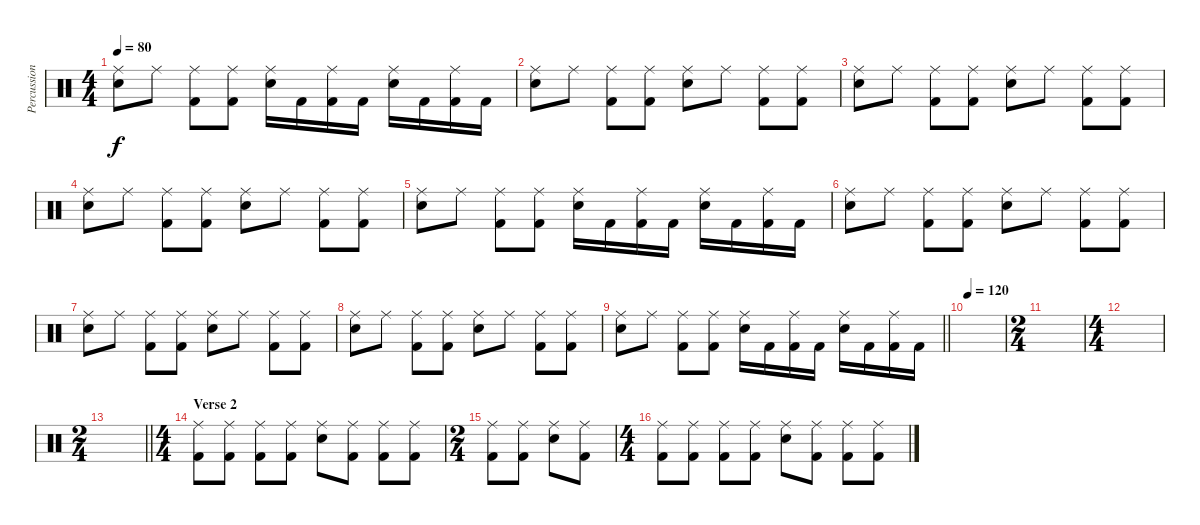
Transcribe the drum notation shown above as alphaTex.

\track ("Percussion" "Percussion") {instrument percussion}
\staff {score}
\articulation defaults
\ts (4 4)
\tempo 80
\clef neutral
\ks c
("Ride (middle)" "Snare (hit) 2").8{dy f} "Ride (middle)".8 ("Ride (middle)" "Kick (hit) 2").8 ("Ride (middle)" "Kick (hit) 2").8 ("Ride (middle)" "Snare (hit) 2").16 "Kick (hit) 2".16 ("Ride (middle)" "Kick (hit) 2").16 "Kick (hit) 2".16 ("Ride (middle)" "Snare (hit) 2").16 "Kick (hit) 2".16 ("Ride (middle)" "Kick (hit) 2").16 "Kick (hit) 2".16 |
("Ride (middle)" "Snare (hit) 2").8 "Ride (middle)".8 ("Ride (middle)" "Kick (hit) 2").8 ("Ride (middle)" "Kick (hit) 2").8 ("Ride (middle)" "Snare (hit) 2").8 "Ride (middle)".8 ("Ride (middle)" "Kick (hit) 2").8 ("Ride (middle)" "Kick (hit) 2").8 |
("Ride (middle)" "Snare (hit) 2").8 "Ride (middle)".8 ("Ride (middle)" "Kick (hit) 2").8 ("Ride (middle)" "Kick (hit) 2").8 ("Ride (middle)" "Snare (hit) 2").8 "Ride (middle)".8 ("Ride (middle)" "Kick (hit) 2").8 ("Ride (middle)" "Kick (hit) 2").8 |
("Ride (middle)" "Snare (hit) 2").8 "Ride (middle)".8 ("Ride (middle)" "Kick (hit) 2").8 ("Ride (middle)" "Kick (hit) 2").8 ("Ride (middle)" "Snare (hit) 2").8 "Ride (middle)".8 ("Ride (middle)" "Kick (hit) 2").8 ("Ride (middle)" "Kick (hit) 2").8 |
("Ride (middle)" "Snare (hit) 2").8 "Ride (middle)".8 ("Ride (middle)" "Kick (hit) 2").8 ("Ride (middle)" "Kick (hit) 2").8 ("Ride (middle)" "Snare (hit) 2").16 "Kick (hit) 2".16 ("Ride (middle)" "Kick (hit) 2").16 "Kick (hit) 2".16 ("Ride (middle)" "Snare (hit) 2").16 "Kick (hit) 2".16 ("Ride (middle)" "Kick (hit) 2").16 "Kick (hit) 2".16 |
("Ride (middle)" "Snare (hit) 2").8 "Ride (middle)".8 ("Ride (middle)" "Kick (hit) 2").8 ("Ride (middle)" "Kick (hit) 2").8 ("Ride (middle)" "Snare (hit) 2").8 "Ride (middle)".8 ("Ride (middle)" "Kick (hit) 2").8 ("Ride (middle)" "Kick (hit) 2").8 |
("Ride (middle)" "Snare (hit) 2").8 "Ride (middle)".8 ("Ride (middle)" "Kick (hit) 2").8 ("Ride (middle)" "Kick (hit) 2").8 ("Ride (middle)" "Snare (hit) 2").8 "Ride (middle)".8 ("Ride (middle)" "Kick (hit) 2").8 ("Ride (middle)" "Kick (hit) 2").8 |
("Ride (middle)" "Snare (hit) 2").8 "Ride (middle)".8 ("Ride (middle)" "Kick (hit) 2").8 ("Ride (middle)" "Kick (hit) 2").8 ("Ride (middle)" "Snare (hit) 2").8 "Ride (middle)".8 ("Ride (middle)" "Kick (hit) 2").8 ("Ride (middle)" "Kick (hit) 2").8 |
\barLineRight lightlight
("Ride (middle)" "Snare (hit) 2").8 "Ride (middle)".8 ("Ride (middle)" "Kick (hit) 2").8 ("Ride (middle)" "Kick (hit) 2").8 ("Ride (middle)" "Snare (hit) 2").16 "Kick (hit) 2".16 ("Ride (middle)" "Kick (hit) 2").16 "Kick (hit) 2".16 ("Ride (middle)" "Snare (hit) 2").16 "Kick (hit) 2".16 ("Ride (middle)" "Kick (hit) 2").16 "Kick (hit) 2".16 |
\section ("" "")
\tempo 120
|
\ts (2 4)
|
\ts (4 4)
|
\ts (2 4)
\barLineRight lightlight
|
\ts (4 4)
\section ("" "Verse 2")
("Ride (middle)" "Kick (hit) 2").8 ("Ride (middle)" "Kick (hit) 2").8 ("Ride (middle)" "Kick (hit) 2").8 ("Ride (middle)" "Kick (hit) 2").8 ("Ride (middle)" "Snare (hit) 2").8 ("Ride (middle)" "Kick (hit) 2").8 ("Ride (middle)" "Kick (hit) 2").8 ("Ride (middle)" "Kick (hit) 2").8 |
\ts (2 4)
("Ride (middle)" "Kick (hit) 2").8 ("Ride (middle)" "Kick (hit) 2").8 ("Ride (middle)" "Snare (hit) 2").8 ("Ride (middle)" "Kick (hit) 2").8 |
\ts (4 4)
("Ride (middle)" "Kick (hit) 2").8 ("Ride (middle)" "Kick (hit) 2").8 ("Ride (middle)" "Kick (hit) 2").8 ("Ride (middle)" "Kick (hit) 2").8 ("Ride (middle)" "Snare (hit) 2").8 ("Ride (middle)" "Kick (hit) 2").8 ("Ride (middle)" "Kick (hit) 2").8 ("Ride (middle)" "Kick (hit) 2").8
